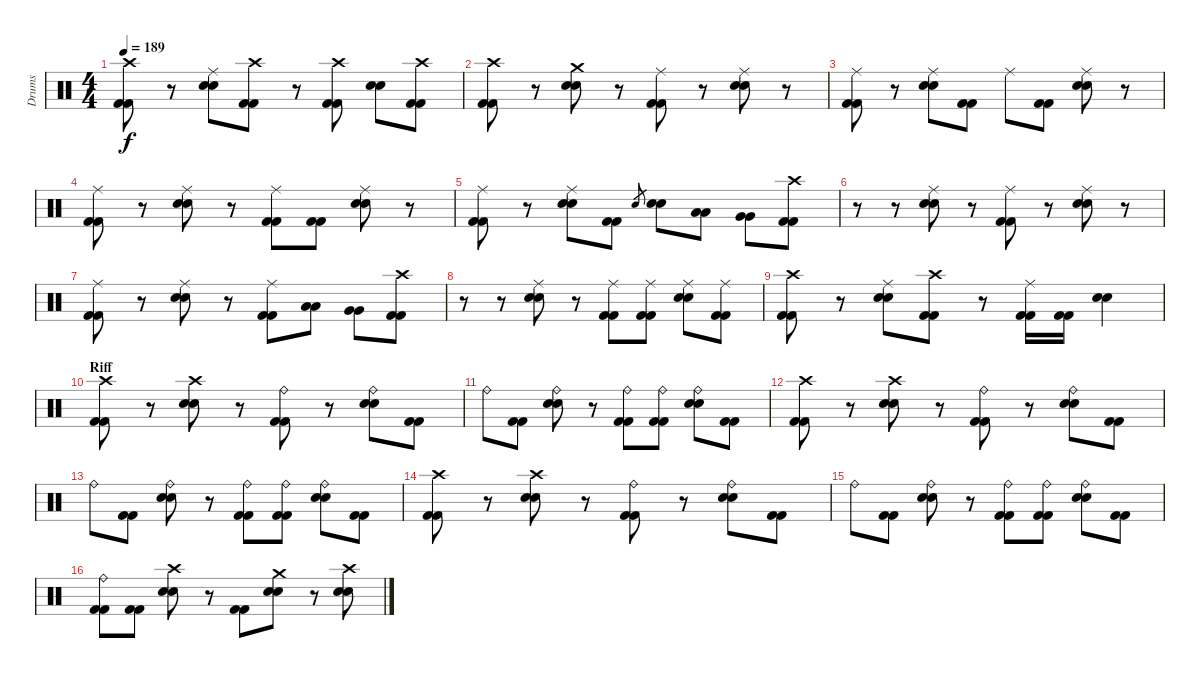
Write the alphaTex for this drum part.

\track ("Drums" "Drums") {instrument percussion}
\staff {score}
\articulation defaults
\ts (4 4)
\tempo 189
\clef neutral
\ks c
("Crash high (hit)" "Kick (hit) 2" "Kick (hit) 2").8{dy f} r.8 ("Ride (middle)" "Snare (hit) 2" "Snare (hit) 2").8 ("Crash high (hit)" "Kick (hit) 2" "Kick (hit) 2").8 r.8 ("Crash high (hit)" "Kick (hit) 2" "Kick (hit) 2").8 ("Snare (hit) 2" "Snare (hit) 2").8 ("Crash high (hit)" "Kick (hit) 2" "Kick (hit) 2").8 |
("Crash high (hit)" "Kick (hit) 2" "Kick (hit) 2").8 r.8 ("Crash medium (hit)" "Snare (hit) 2" "Snare (hit) 2").8 r.8 ("Ride (middle)" "Kick (hit) 2" "Kick (hit) 2").8 r.8 ("Ride (middle)" "Snare (hit) 2" "Snare (hit) 2").8 r.8 |
("Ride (middle)" "Kick (hit) 2" "Kick (hit) 2").8 r.8 ("Ride (middle)" "Snare (hit) 2" "Snare (hit) 2").8 ("Kick (hit) 2" "Kick (hit) 2").8 "Ride (middle)".8 ("Kick (hit) 2" "Kick (hit) 2").8 ("Ride (middle)" "Snare (hit) 2" "Snare (hit) 2").8 r.8 |
("Ride (middle)" "Kick (hit) 2" "Kick (hit) 2").8 r.8 ("Ride (middle)" "Snare (hit) 2" "Snare (hit) 2").8 r.8 ("Ride (middle)" "Kick (hit) 2" "Kick (hit) 2").8 ("Kick (hit) 2" "Kick (hit) 2").8 ("Ride (middle)" "Snare (hit) 2" "Snare (hit) 2").8 r.8 |
("Ride (middle)" "Kick (hit) 2" "Kick (hit) 2").8 r.8 ("Ride (middle)" "Snare (hit) 2" "Snare (hit) 2").8 ("Kick (hit) 2" "Kick (hit) 2").8 "Snare (hit) 2".8{gr} ("Snare (hit) 2" "Snare (hit) 2").8 ("Low Tom (hit)" "Low Tom (hit)").8 ("Very Low Tom (hit)" "Very Low Tom (hit)").8 ("Crash high (hit)" "Kick (hit) 2" "Kick (hit) 2").8 |
r.8 r.8 ("Ride (middle)" "Snare (hit) 2" "Snare (hit) 2").8 r.8 ("Ride (middle)" "Kick (hit) 2" "Kick (hit) 2").8 r.8 ("Ride (middle)" "Snare (hit) 2" "Snare (hit) 2").8 r.8 |
("Ride (middle)" "Kick (hit) 2" "Kick (hit) 2").8 r.8 ("Ride (middle)" "Snare (hit) 2" "Snare (hit) 2").8 r.8 ("Ride (middle)" "Kick (hit) 2" "Kick (hit) 2").8 ("Low Tom (hit)" "Low Tom (hit)").8 ("Very Low Tom (hit)" "Very Low Tom (hit)").8 ("Crash high (hit)" "Kick (hit) 2" "Kick (hit) 2").8 |
r.8 r.8 ("Ride (middle)" "Snare (hit) 2" "Snare (hit) 2").8 r.8 ("Ride (middle)" "Kick (hit) 2" "Kick (hit) 2").8 ("Ride (middle)" "Kick (hit) 2" "Kick (hit) 2").8 ("Ride (middle)" "Snare (hit) 2" "Snare (hit) 2").8 ("Ride (middle)" "Kick (hit) 2" "Kick (hit) 2").8 |
("Crash high (hit)" "Kick (hit) 2" "Kick (hit) 2").8 r.8 ("Ride (middle)" "Snare (hit) 2" "Snare (hit) 2").8 ("Crash high (hit)" "Kick (hit) 2" "Kick (hit) 2").8 r.8 ("Ride (middle)" "Kick (hit) 2" "Kick (hit) 2").16 ("Kick (hit) 2" "Kick (hit) 2").16 ("Snare (hit) 2" "Snare (hit) 2").4 |
\section ("" "Riff")
("Crash high (hit)" "Kick (hit) 2" "Kick (hit) 2").8 r.8 ("Crash high (hit)" "Snare (hit) 2" "Snare (hit) 2").8 r.8 ("Ride (bell)" "Kick (hit) 2" "Kick (hit) 2").8 r.8 ("Ride (bell)" "Snare (hit) 2" "Snare (hit) 2").8 ("Kick (hit) 2" "Kick (hit) 2").8 |
"Ride (bell)".8 ("Kick (hit) 2" "Kick (hit) 2").8 ("Ride (bell)" "Snare (hit) 2" "Snare (hit) 2").8 r.8 ("Ride (bell)" "Kick (hit) 2" "Kick (hit) 2").8 ("Ride (bell)" "Kick (hit) 2" "Kick (hit) 2").8 ("Ride (bell)" "Snare (hit) 2" "Snare (hit) 2").8 ("Kick (hit) 2" "Kick (hit) 2").8 |
("Crash high (hit)" "Kick (hit) 2" "Kick (hit) 2").8 r.8 ("Crash high (hit)" "Snare (hit) 2" "Snare (hit) 2").8 r.8 ("Ride (bell)" "Kick (hit) 2" "Kick (hit) 2").8 r.8 ("Ride (bell)" "Snare (hit) 2" "Snare (hit) 2").8 ("Kick (hit) 2" "Kick (hit) 2").8 |
"Ride (bell)".8 ("Kick (hit) 2" "Kick (hit) 2").8 ("Ride (bell)" "Snare (hit) 2" "Snare (hit) 2").8 r.8 ("Ride (bell)" "Kick (hit) 2" "Kick (hit) 2").8 ("Ride (bell)" "Kick (hit) 2" "Kick (hit) 2").8 ("Ride (bell)" "Snare (hit) 2" "Snare (hit) 2").8 ("Kick (hit) 2" "Kick (hit) 2").8 |
("Crash high (hit)" "Kick (hit) 2" "Kick (hit) 2").8 r.8 ("Crash high (hit)" "Snare (hit) 2" "Snare (hit) 2").8 r.8 ("Ride (bell)" "Kick (hit) 2" "Kick (hit) 2").8 r.8 ("Ride (bell)" "Snare (hit) 2" "Snare (hit) 2").8 ("Kick (hit) 2" "Kick (hit) 2").8 |
"Ride (bell)".8 ("Kick (hit) 2" "Kick (hit) 2").8 ("Ride (bell)" "Snare (hit) 2" "Snare (hit) 2").8 r.8 ("Ride (bell)" "Kick (hit) 2" "Kick (hit) 2").8 ("Ride (bell)" "Kick (hit) 2" "Kick (hit) 2").8 ("Ride (bell)" "Snare (hit) 2" "Snare (hit) 2").8 ("Kick (hit) 2" "Kick (hit) 2").8 |
("Ride (bell)" "Kick (hit) 2" "Kick (hit) 2").8 ("Kick (hit) 2" "Kick (hit) 2").8 ("Crash high (hit)" "Snare (hit) 2" "Snare (hit) 2").8 r.8 ("Kick (hit) 2" "Kick (hit) 2").8 ("Crash medium (hit)" "Snare (hit) 2" "Snare (hit) 2").8 r.8 ("Crash high (hit)" "Snare (hit) 2" "Snare (hit) 2").8
